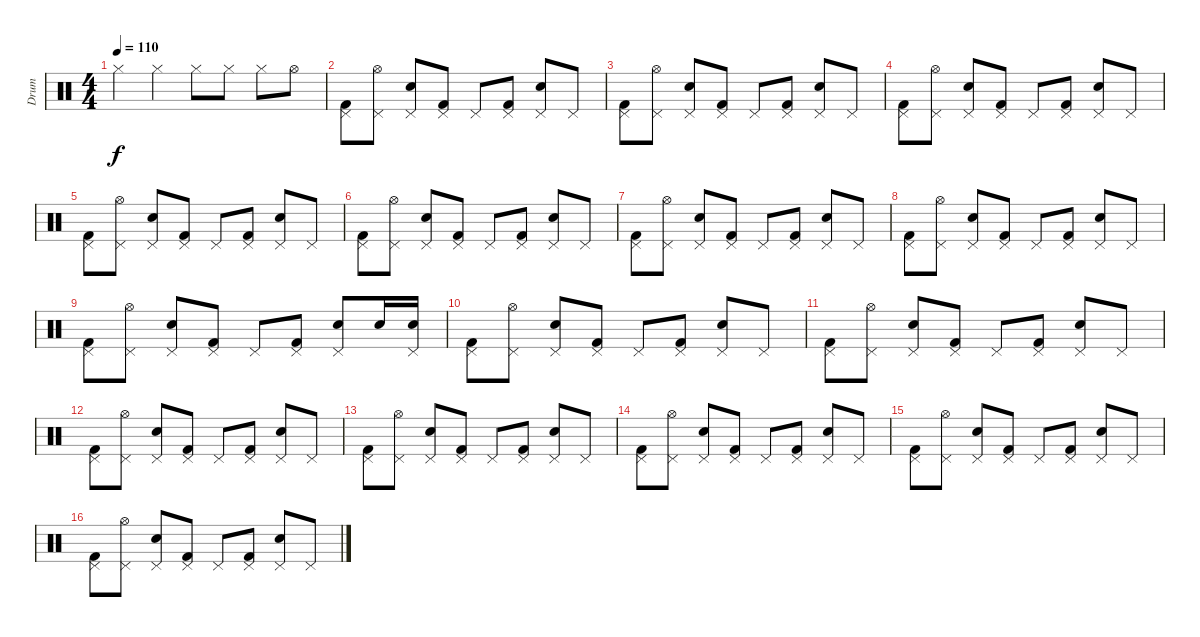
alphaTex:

\track ("Drum " "Drum ") {instrument percussion}
\staff {score}
\articulation defaults
\ts (4 4)
\tempo 110
\clef neutral
\ks c "Hi-Hat (closed)".4{dy f} "Hi-Hat (closed)".4 "Hi-Hat (closed)".8 "Hi-Hat (closed)".8 "Hi-Hat (closed)".8 "Hi-Hat (open)".8
|
("Pedal Hi-Hat (hit)" "Kick (hit) 2").8 ("Pedal Hi-Hat (hit)" "Hi-Hat (open)").8 ("Pedal Hi-Hat (hit)" "Snare (hit) 2").8 ("Pedal Hi-Hat (hit)" "Kick (hit) 2").8 "Pedal Hi-Hat (hit)".8 ("Pedal Hi-Hat (hit)" "Kick (hit) 2").8 ("Pedal Hi-Hat (hit)" "Snare (hit) 2").8 "Pedal Hi-Hat (hit)".8 |
("Pedal Hi-Hat (hit)" "Kick (hit) 2").8 ("Pedal Hi-Hat (hit)" "Hi-Hat (open)").8 ("Pedal Hi-Hat (hit)" "Snare (hit) 2").8 ("Pedal Hi-Hat (hit)" "Kick (hit) 2").8 "Pedal Hi-Hat (hit)".8 ("Pedal Hi-Hat (hit)" "Kick (hit) 2").8 ("Pedal Hi-Hat (hit)" "Snare (hit) 2").8 "Pedal Hi-Hat (hit)".8 |
("Pedal Hi-Hat (hit)" "Kick (hit) 2").8 ("Pedal Hi-Hat (hit)" "Hi-Hat (open)").8 ("Pedal Hi-Hat (hit)" "Snare (hit) 2").8 ("Pedal Hi-Hat (hit)" "Kick (hit) 2").8 "Pedal Hi-Hat (hit)".8 ("Pedal Hi-Hat (hit)" "Kick (hit) 2").8 ("Pedal Hi-Hat (hit)" "Snare (hit) 2").8 "Pedal Hi-Hat (hit)".8 |
("Pedal Hi-Hat (hit)" "Kick (hit) 2").8 ("Pedal Hi-Hat (hit)" "Hi-Hat (open)").8 ("Pedal Hi-Hat (hit)" "Snare (hit) 2").8 ("Pedal Hi-Hat (hit)" "Kick (hit) 2").8 "Pedal Hi-Hat (hit)".8 ("Pedal Hi-Hat (hit)" "Kick (hit) 2").8 ("Pedal Hi-Hat (hit)" "Snare (hit) 2").8 "Pedal Hi-Hat (hit)".8 |
("Pedal Hi-Hat (hit)" "Kick (hit) 2").8 ("Pedal Hi-Hat (hit)" "Hi-Hat (open)").8 ("Pedal Hi-Hat (hit)" "Snare (hit) 2").8 ("Pedal Hi-Hat (hit)" "Kick (hit) 2").8 "Pedal Hi-Hat (hit)".8 ("Pedal Hi-Hat (hit)" "Kick (hit) 2").8 ("Pedal Hi-Hat (hit)" "Snare (hit) 2").8 "Pedal Hi-Hat (hit)".8 |
("Pedal Hi-Hat (hit)" "Kick (hit) 2").8 ("Pedal Hi-Hat (hit)" "Hi-Hat (open)").8 ("Pedal Hi-Hat (hit)" "Snare (hit) 2").8 ("Pedal Hi-Hat (hit)" "Kick (hit) 2").8 "Pedal Hi-Hat (hit)".8 ("Pedal Hi-Hat (hit)" "Kick (hit) 2").8 ("Pedal Hi-Hat (hit)" "Snare (hit) 2").8 "Pedal Hi-Hat (hit)".8 |
("Pedal Hi-Hat (hit)" "Kick (hit) 2").8 ("Pedal Hi-Hat (hit)" "Hi-Hat (open)").8 ("Pedal Hi-Hat (hit)" "Snare (hit) 2").8 ("Pedal Hi-Hat (hit)" "Kick (hit) 2").8 "Pedal Hi-Hat (hit)".8 ("Pedal Hi-Hat (hit)" "Kick (hit) 2").8 ("Pedal Hi-Hat (hit)" "Snare (hit) 2").8 "Pedal Hi-Hat (hit)".8 |
("Pedal Hi-Hat (hit)" "Kick (hit) 2").8 ("Pedal Hi-Hat (hit)" "Hi-Hat (open)").8 ("Pedal Hi-Hat (hit)" "Snare (hit) 2").8 ("Pedal Hi-Hat (hit)" "Kick (hit) 2").8 "Pedal Hi-Hat (hit)".8 ("Pedal Hi-Hat (hit)" "Kick (hit) 2").8 ("Pedal Hi-Hat (hit)" "Snare (hit) 2").8 "Snare (hit) 2".16 ("Pedal Hi-Hat (hit)" "Snare (hit) 2").16 |
("Pedal Hi-Hat (hit)" "Kick (hit) 2").8 ("Pedal Hi-Hat (hit)" "Hi-Hat (open)").8 ("Pedal Hi-Hat (hit)" "Snare (hit) 2").8 ("Pedal Hi-Hat (hit)" "Kick (hit) 2").8 "Pedal Hi-Hat (hit)".8 ("Pedal Hi-Hat (hit)" "Kick (hit) 2").8 ("Pedal Hi-Hat (hit)" "Snare (hit) 2").8 "Pedal Hi-Hat (hit)".8 |
("Pedal Hi-Hat (hit)" "Kick (hit) 2").8 ("Pedal Hi-Hat (hit)" "Hi-Hat (open)").8 ("Pedal Hi-Hat (hit)" "Snare (hit) 2").8 ("Pedal Hi-Hat (hit)" "Kick (hit) 2").8 "Pedal Hi-Hat (hit)".8 ("Pedal Hi-Hat (hit)" "Kick (hit) 2").8 ("Pedal Hi-Hat (hit)" "Snare (hit) 2").8 "Pedal Hi-Hat (hit)".8 |
("Pedal Hi-Hat (hit)" "Kick (hit) 2").8 ("Pedal Hi-Hat (hit)" "Hi-Hat (open)").8 ("Pedal Hi-Hat (hit)" "Snare (hit) 2").8 ("Pedal Hi-Hat (hit)" "Kick (hit) 2").8 "Pedal Hi-Hat (hit)".8 ("Pedal Hi-Hat (hit)" "Kick (hit) 2").8 ("Pedal Hi-Hat (hit)" "Snare (hit) 2").8 "Pedal Hi-Hat (hit)".8 |
("Pedal Hi-Hat (hit)" "Kick (hit) 2").8 ("Pedal Hi-Hat (hit)" "Hi-Hat (open)").8 ("Pedal Hi-Hat (hit)" "Snare (hit) 2").8 ("Pedal Hi-Hat (hit)" "Kick (hit) 2").8 "Pedal Hi-Hat (hit)".8 ("Pedal Hi-Hat (hit)" "Kick (hit) 2").8 ("Pedal Hi-Hat (hit)" "Snare (hit) 2").8 "Pedal Hi-Hat (hit)".8 |
("Pedal Hi-Hat (hit)" "Kick (hit) 2").8 ("Pedal Hi-Hat (hit)" "Hi-Hat (open)").8 ("Pedal Hi-Hat (hit)" "Snare (hit) 2").8 ("Pedal Hi-Hat (hit)" "Kick (hit) 2").8 "Pedal Hi-Hat (hit)".8 ("Pedal Hi-Hat (hit)" "Kick (hit) 2").8 ("Pedal Hi-Hat (hit)" "Snare (hit) 2").8 "Pedal Hi-Hat (hit)".8 |
("Pedal Hi-Hat (hit)" "Kick (hit) 2").8 ("Pedal Hi-Hat (hit)" "Hi-Hat (open)").8 ("Pedal Hi-Hat (hit)" "Snare (hit) 2").8 ("Pedal Hi-Hat (hit)" "Kick (hit) 2").8 "Pedal Hi-Hat (hit)".8 ("Pedal Hi-Hat (hit)" "Kick (hit) 2").8 ("Pedal Hi-Hat (hit)" "Snare (hit) 2").8 "Pedal Hi-Hat (hit)".8 |
("Pedal Hi-Hat (hit)" "Kick (hit) 2").8 ("Pedal Hi-Hat (hit)" "Hi-Hat (open)").8 ("Pedal Hi-Hat (hit)" "Snare (hit) 2").8 ("Pedal Hi-Hat (hit)" "Kick (hit) 2").8 "Pedal Hi-Hat (hit)".8 ("Pedal Hi-Hat (hit)" "Kick (hit) 2").8 ("Pedal Hi-Hat (hit)" "Snare (hit) 2").8 "Pedal Hi-Hat (hit)".8
